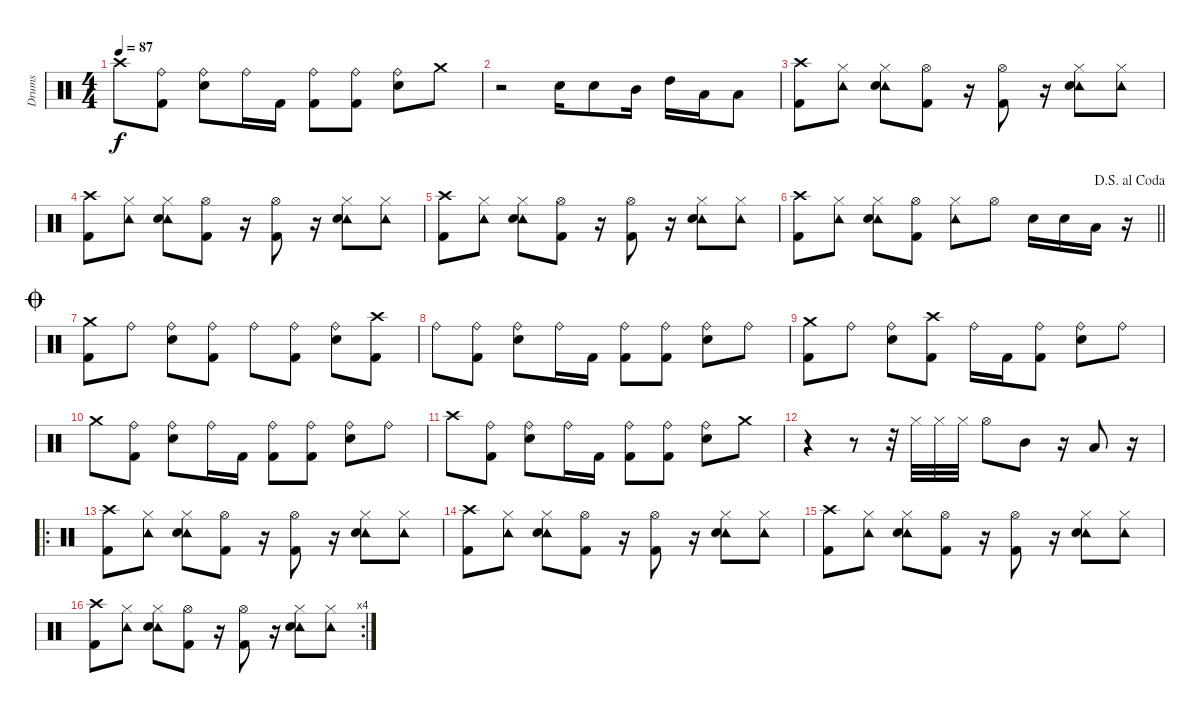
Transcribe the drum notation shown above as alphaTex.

\track ("Drums" "Drums") {instrument percussion}
\staff {score}
\articulation defaults
\ts (4 4)
\tempo 87
\clef neutral
\ks c "Crash high (hit)".8{dy f}
("Ride (bell)" "Kick (hit) 2").8 ("Ride (bell)" "Snare (hit) 2").8 "Ride (bell)".16 "Kick (hit) 2".16 ("Ride (bell)" "Kick (hit) 2").8 ("Ride (bell)" "Kick (hit) 2").8 ("Ride (bell)" "Snare (hit) 2").8 "Crash medium (hit)".8 |
r.2 "Snare (hit) 2".16 "Snare (hit) 2".8 "Mid Tom (hit)".16 "High Tom (hit)".16 "Low Tom (hit)".16 "Low Floor Tom (hit)".8 |
("Crash high (hit)" "Kick (hit) 2").8 ("Tambourine (hit)" "Hi-Hat (closed)").8 ("Tambourine (hit)" "Hi-Hat (closed)" "Snare (hit) 2").8 ("Hi-Hat (open)" "Kick (hit) 2").8 r.16 ("Hi-Hat (open)" "Kick (hit) 2").8 r.16 ("Tambourine (hit)" "Hi-Hat (closed)" "Snare (hit) 2").8 ("Tambourine (hit)" "Hi-Hat (closed)").8 |
("Crash high (hit)" "Kick (hit) 2").8 ("Tambourine (hit)" "Hi-Hat (closed)").8 ("Tambourine (hit)" "Hi-Hat (closed)" "Snare (hit) 2").8 ("Hi-Hat (open)" "Kick (hit) 2").8 r.16 ("Hi-Hat (open)" "Kick (hit) 2").8 r.16 ("Tambourine (hit)" "Hi-Hat (closed)" "Snare (hit) 2").8 ("Tambourine (hit)" "Hi-Hat (closed)").8 |
("Crash high (hit)" "Kick (hit) 2").8 ("Tambourine (hit)" "Hi-Hat (closed)").8 ("Tambourine (hit)" "Hi-Hat (closed)" "Snare (hit) 2").8 ("Hi-Hat (open)" "Kick (hit) 2").8 r.16 ("Hi-Hat (open)" "Kick (hit) 2").8 r.16 ("Tambourine (hit)" "Hi-Hat (closed)" "Snare (hit) 2").8 ("Tambourine (hit)" "Hi-Hat (closed)").8 |
\jump dalsegnoalcoda
\barLineRight lightlight
("Crash high (hit)" "Kick (hit) 2").8 ("Tambourine (hit)" "Hi-Hat (closed)").8 ("Tambourine (hit)" "Hi-Hat (closed)" "Snare (hit) 2").8 ("Hi-Hat (open)" "Kick (hit) 2").8 ("Tambourine (hit)" "Hi-Hat (closed)").8 "Hi-Hat (open)".8 "Snare (hit) 2".16 "Snare (hit) 2".16 "Low Tom (hit)".16 r.16 |
\jump coda
("Crash medium (hit)" "Kick (hit) 2").8 "Ride (bell)".8 ("Ride (bell)" "Snare (hit) 2").8 ("Ride (bell)" "Kick (hit) 2").8 "Ride (bell)".8 ("Ride (bell)" "Kick (hit) 2").8 ("Ride (bell)" "Snare (hit) 2").8 ("Crash high (hit)" "Kick (hit) 2").8 |
"Ride (bell)".8 ("Ride (bell)" "Kick (hit) 2").8 ("Ride (bell)" "Snare (hit) 2").8 "Ride (bell)".16 "Kick (hit) 2".16 ("Ride (bell)" "Kick (hit) 2").8 ("Ride (bell)" "Kick (hit) 2").8 ("Ride (bell)" "Snare (hit) 2").8 "Ride (bell)".8 |
("Crash medium (hit)" "Kick (hit) 2").8 "Ride (bell)".8 ("Ride (bell)" "Snare (hit) 2").8 ("Crash high (hit)" "Kick (hit) 2").8 "Ride (bell)".16 "Kick (hit) 2".16 ("Ride (bell)" "Kick (hit) 2").8 ("Ride (bell)" "Snare (hit) 2").8 "Ride (bell)".8 |
"Crash medium (hit)".8 ("Ride (bell)" "Kick (hit) 2").8 ("Ride (bell)" "Snare (hit) 2").8 "Ride (bell)".16 "Kick (hit) 2".16 ("Ride (bell)" "Kick (hit) 2").8 ("Ride (bell)" "Kick (hit) 2").8 ("Ride (bell)" "Snare (hit) 2").8 "Ride (bell)".8 |
"Crash high (hit)".8 ("Ride (bell)" "Kick (hit) 2").8 ("Ride (bell)" "Snare (hit) 2").8 "Ride (bell)".16 "Kick (hit) 2".16 ("Ride (bell)" "Kick (hit) 2").8 ("Ride (bell)" "Kick (hit) 2").8 ("Ride (bell)" "Snare (hit) 2").8 "Crash medium (hit)".8 |
r.4 r.8 r.32 "Hi-Hat (closed)".32 "Hi-Hat (closed)".32 "Hi-Hat (closed)".32 "Hi-Hat (open)".8 "Mid Tom (hit)".8 r.16 "Low Floor Tom (hit)".8 r.16 |
\ro
("Crash high (hit)" "Kick (hit) 2").8 ("Tambourine (hit)" "Hi-Hat (closed)").8 ("Tambourine (hit)" "Hi-Hat (closed)" "Snare (hit) 2").8 ("Hi-Hat (open)" "Kick (hit) 2").8 r.16 ("Hi-Hat (open)" "Kick (hit) 2").8 r.16 ("Tambourine (hit)" "Hi-Hat (closed)" "Snare (hit) 2").8 ("Tambourine (hit)" "Hi-Hat (closed)").8 |
("Crash high (hit)" "Kick (hit) 2").8{volume 12} ("Tambourine (hit)" "Hi-Hat (closed)").8 ("Tambourine (hit)" "Hi-Hat (closed)" "Snare (hit) 2").8 ("Hi-Hat (open)" "Kick (hit) 2").8 r.16 ("Hi-Hat (open)" "Kick (hit) 2").8 r.16 ("Tambourine (hit)" "Hi-Hat (closed)" "Snare (hit) 2").8 ("Tambourine (hit)" "Hi-Hat (closed)").8 |
("Crash high (hit)" "Kick (hit) 2").8 ("Tambourine (hit)" "Hi-Hat (closed)").8 ("Tambourine (hit)" "Hi-Hat (closed)" "Snare (hit) 2").8 ("Hi-Hat (open)" "Kick (hit) 2").8 r.16 ("Hi-Hat (open)" "Kick (hit) 2").8 r.16 ("Tambourine (hit)" "Hi-Hat (closed)" "Snare (hit) 2").8 ("Tambourine (hit)" "Hi-Hat (closed)").8 |
\rc 4
("Crash high (hit)" "Kick (hit) 2").8{volume 10} ("Tambourine (hit)" "Hi-Hat (closed)").8 ("Tambourine (hit)" "Hi-Hat (closed)" "Snare (hit) 2").8 ("Hi-Hat (open)" "Kick (hit) 2").8 r.16 ("Hi-Hat (open)" "Kick (hit) 2").8 r.16 ("Tambourine (hit)" "Hi-Hat (closed)" "Snare (hit) 2").8 ("Tambourine (hit)" "Hi-Hat (closed)").8
